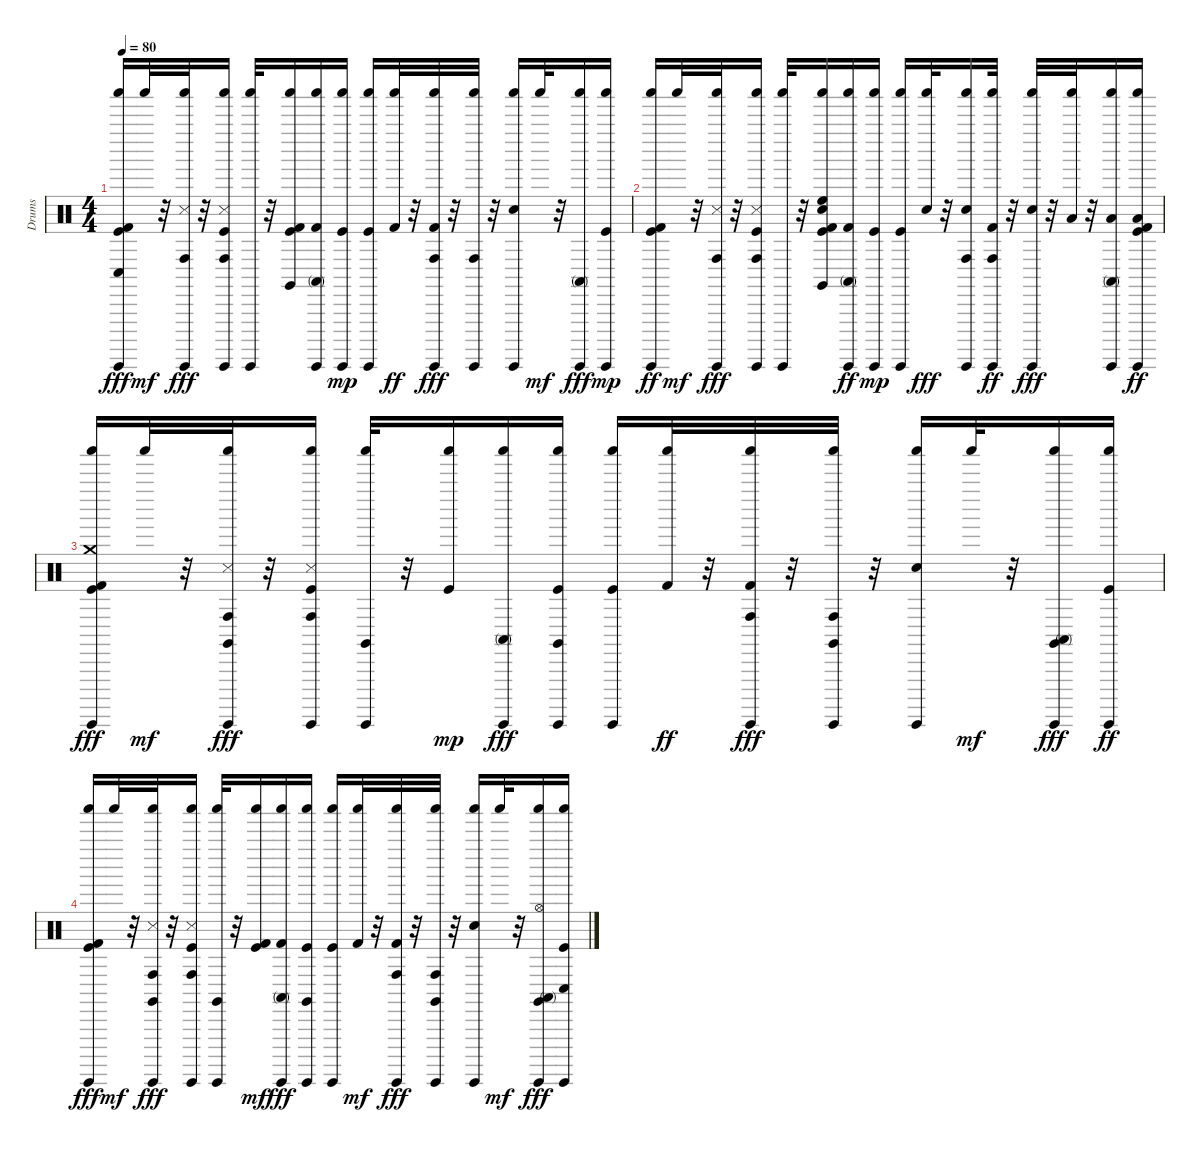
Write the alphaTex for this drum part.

\track ("Drums" "Drums") {instrument percussion}
\staff {score}
\articulation defaults
\ts (4 4)
\tempo 80
\clef neutral
\ks c
("Guiro (hit)" "Shaker (hit)" "Kick (hit)" "Kick (hit) 2" "Conga low (hit)").16{dy fff} "Shaker (hit)".32{dy mf} r.32 ("Guiro (hit)" "Shaker (hit)" "Snare (side stick) 3" "Conga high (hit)").32{dy fff} r.32 ("Guiro (hit)" "Shaker (hit)" "Kick (hit)" "Snare (side stick) 3" "Conga high (hit)").16 ("Guiro (hit)" "Shaker (hit)").32 r.32 ("Shaker (hit)" "Kick (hit)" "Kick (hit) 2" "Claves (hit)").16 ("Guiro (hit)" "Shaker (hit)" "Kick (hit) 2" "Conga high (mute)").16 ("Guiro (hit)" "Shaker (hit)" "Kick (hit)").16{dy mp} ("Guiro (hit)" "Shaker (hit)" "Kick (hit)").16 ("Shaker (hit)" "Kick (hit) 2").32{dy ff} r.32 ("Guiro (hit)" "Shaker (hit)" "Kick (hit) 2" "Conga high (hit)").32{dy fff} r.32 ("Guiro (hit)" "Shaker (hit)" "Conga high (hit)").32 r.32 ("Guiro (hit)" "Electric Snare (hit)" "Shaker (hit)").16 "Shaker (hit)".32{dy mf} r.32 ("Guiro (hit)" "Shaker (hit)" "Conga high (mute)").16{dy fff} ("Guiro (hit)" "Shaker (hit)" "Kick (hit)").16{dy mp} |
("Guiro (hit)" "Shaker (hit)" "Kick (hit)" "Kick (hit) 2").16{dy ff} "Shaker (hit)".32{dy mf} r.32 ("Guiro (hit)" "Shaker (hit)" "Snare (side stick) 3" "Conga high (hit)").32{dy fff} r.32 ("Guiro (hit)" "Shaker (hit)" "Snare (side stick) 3" "Kick (hit)" "Conga high (hit)").16 ("Guiro (hit)" "Shaker (hit)").32 r.32 ("Shaker (hit)" "Claves (hit)" "Kick (hit)" "Kick (hit) 2" "Electric Snare (hit)" "High Floor Tom (hit)").16 ("Guiro (hit)" "Shaker (hit)" "Conga high (mute)" "Kick (hit) 2").16{dy ff} ("Guiro (hit)" "Shaker (hit)" "Kick (hit)").16{dy mp} ("Guiro (hit)" "Shaker (hit)" "Kick (hit)").16 ("Shaker (hit)" "Electric Snare (hit)").32{dy fff} r.32 ("Guiro (hit)" "Shaker (hit)" "Conga high (hit)" "Electric Snare (hit)").16 ("Guiro (hit)" "Shaker (hit)" "Conga high (hit)" "Kick (hit) 2").32{dy ff} r.32 ("Guiro (hit)" "Shaker (hit)" "Electric Snare (hit)").32{dy fff} r.32 ("Shaker (hit)" "Low Tom (hit)").32 r.32 ("Guiro (hit)" "Shaker (hit)" "Conga high (mute)" "Low Tom (hit)").16 ("Low Floor Tom (hit)" "Guiro (hit)" "Shaker (hit)" "Kick (hit)" "Kick (hit) 2").16{dy ff} |
("Guiro (hit)" "Shaker (hit)" "Kick (hit)" "Kick (hit) 2" "Crash medium (hit)").16{dy fff} "Shaker (hit)".32{dy mf} r.32 ("Shaker (hit)" "Guiro (hit)" "Snare (side stick) 3" "Conga high (hit)" "Claves (hit)").32{dy fff} r.32 ("Shaker (hit)" "Kick (hit)" "Guiro (hit)" "Snare (side stick) 3" "Conga high (hit)").16 ("Claves (hit)" "Shaker (hit)" "Guiro (hit)").32 r.32 ("Shaker (hit)" "Kick (hit)").16{dy mp} ("Shaker (hit)" "Guiro (hit)" "Conga high (mute)").16{dy fff} ("Shaker (hit)" "Kick (hit)" "Guiro (hit)" "Claves (hit)").16 ("Shaker (hit)" "Kick (hit)" "Guiro (hit)").16 ("Shaker (hit)" "Kick (hit) 2").32{dy ff} r.32 ("Shaker (hit)" "Kick (hit) 2" "Guiro (hit)" "Conga high (hit)").32{dy fff} r.32 ("Claves (hit)" "Shaker (hit)" "Guiro (hit)" "Conga high (hit)").32 r.32 ("Shaker (hit)" "Guiro (hit)" "Electric Snare (hit)").16 "Shaker (hit)".32{dy mf} r.32 ("Claves (hit)" "Shaker (hit)" "Guiro (hit)" "Conga high (mute)").16{dy fff} ("Shaker (hit)" "Kick (hit)" "Guiro (hit)").16{dy ff} |
("Kick (hit)" "Guiro (hit)" "Kick (hit) 2" "Shaker (hit)").16{dy fff} "Shaker (hit)".32{dy mf} r.32 ("Guiro (hit)" "Shaker (hit)" "Snare (side stick) 3" "Conga high (hit)" "Claves (hit)").32{dy fff} r.32 ("Kick (hit)" "Guiro (hit)" "Shaker (hit)" "Snare (side stick) 3" "Conga high (hit)").16 ("Guiro (hit)" "Shaker (hit)" "Claves (hit)").32 r.32 ("Kick (hit)" "Kick (hit) 2" "Shaker (hit)").16{dy mf} ("Guiro (hit)" "Kick (hit) 2" "Shaker (hit)" "Conga high (mute)").16{dy fff} ("Kick (hit)" "Guiro (hit)" "Shaker (hit)" "Claves (hit)").16 ("Kick (hit)" "Guiro (hit)" "Shaker (hit)").16 ("Kick (hit) 2" "Shaker (hit)").32{dy mf} r.32 ("Guiro (hit)" "Kick (hit) 2" "Shaker (hit)" "Conga high (hit)").32{dy fff} r.32 ("Guiro (hit)" "Shaker (hit)" "Conga high (hit)" "Claves (hit)").32 r.32 ("Guiro (hit)" "Electric Snare (hit)" "Shaker (hit)").16 "Shaker (hit)".32{dy mf} r.32 ("Claves (hit)" "Guiro (hit)" "Shaker (hit)" "Hi-Hat (open)" "Conga high (mute)").16{dy fff} ("Kick (hit)" "Guiro (hit)" "Shaker (hit)" "Conga low (hit)").16
